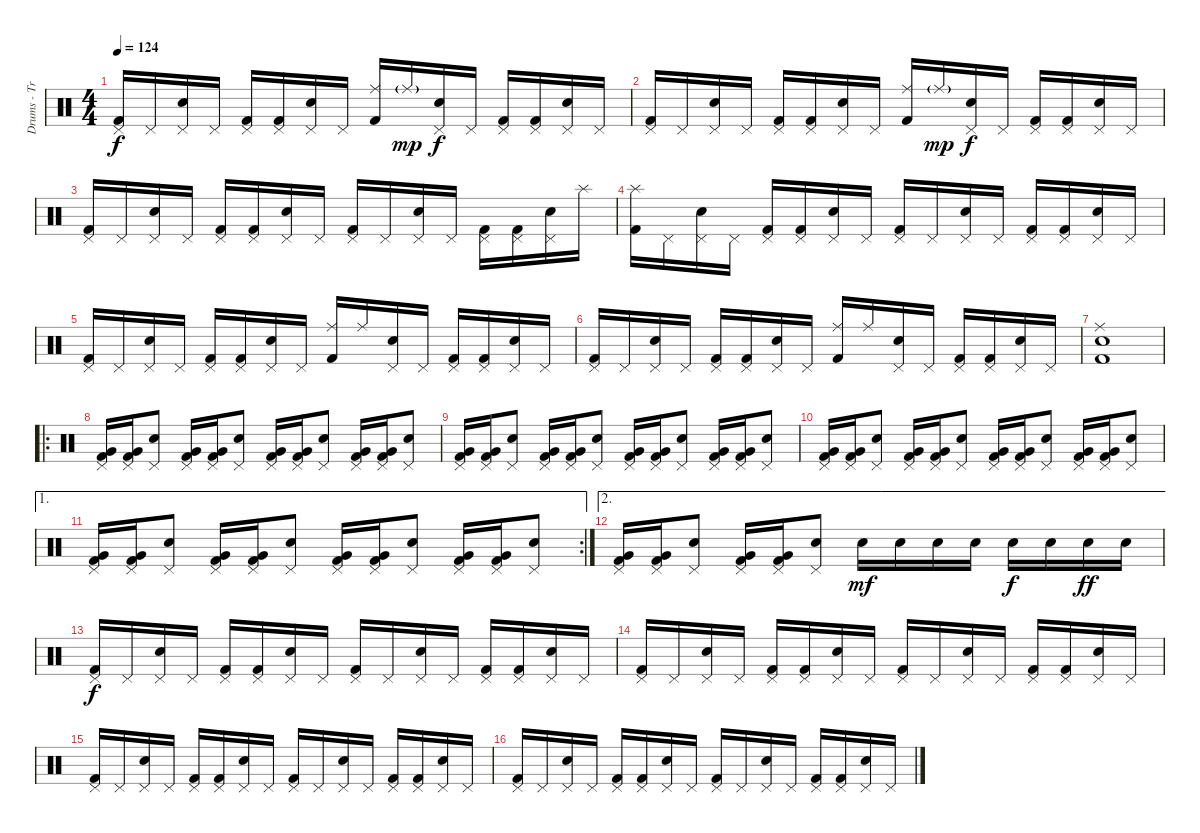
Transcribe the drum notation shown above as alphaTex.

\track ("Drums - Travis Barker" "Drums - Tr") {instrument percussion}
\staff {score}
\articulation defaults
\ts (4 4)
\tempo 124
\clef neutral
\ks c
("Pedal Hi-Hat (hit)" "Kick (hit) 2").16{dy f} "Pedal Hi-Hat (hit)".16 ("Pedal Hi-Hat (hit)" "Electric Snare (hit)").16 "Pedal Hi-Hat (hit)".16 ("Pedal Hi-Hat (hit)" "Kick (hit) 2").16 ("Pedal Hi-Hat (hit)" "Kick (hit) 2").16 ("Pedal Hi-Hat (hit)" "Electric Snare (hit)").16 "Pedal Hi-Hat (hit)".16 ("Ride (middle)" "Kick (hit) 2").16 "Ride (middle)"{g}.16{dy mp} ("Pedal Hi-Hat (hit)" "Electric Snare (hit)").16{dy f} "Pedal Hi-Hat (hit)".16 ("Pedal Hi-Hat (hit)" "Kick (hit) 2").16 ("Pedal Hi-Hat (hit)" "Kick (hit) 2").16 ("Pedal Hi-Hat (hit)" "Electric Snare (hit)").16 "Pedal Hi-Hat (hit)".16 |
("Pedal Hi-Hat (hit)" "Kick (hit) 2").16 "Pedal Hi-Hat (hit)".16 ("Pedal Hi-Hat (hit)" "Electric Snare (hit)").16 "Pedal Hi-Hat (hit)".16 ("Pedal Hi-Hat (hit)" "Kick (hit) 2").16 ("Pedal Hi-Hat (hit)" "Kick (hit) 2").16 ("Pedal Hi-Hat (hit)" "Electric Snare (hit)").16 "Pedal Hi-Hat (hit)".16 ("Ride (middle)" "Kick (hit) 2").16 "Ride (middle)"{g}.16{dy mp} ("Pedal Hi-Hat (hit)" "Electric Snare (hit)").16{dy f} "Pedal Hi-Hat (hit)".16 ("Pedal Hi-Hat (hit)" "Kick (hit) 2").16 ("Pedal Hi-Hat (hit)" "Kick (hit) 2").16 ("Pedal Hi-Hat (hit)" "Electric Snare (hit)").16 "Pedal Hi-Hat (hit)".16 |
("Pedal Hi-Hat (hit)" "Kick (hit) 2").16 "Pedal Hi-Hat (hit)".16 ("Pedal Hi-Hat (hit)" "Electric Snare (hit)").16 "Pedal Hi-Hat (hit)".16 ("Pedal Hi-Hat (hit)" "Kick (hit) 2").16 ("Pedal Hi-Hat (hit)" "Kick (hit) 2").16 ("Pedal Hi-Hat (hit)" "Electric Snare (hit)").16 "Pedal Hi-Hat (hit)".16 ("Pedal Hi-Hat (hit)" "Kick (hit) 2").16 "Pedal Hi-Hat (hit)".16 ("Pedal Hi-Hat (hit)" "Electric Snare (hit)").16 "Pedal Hi-Hat (hit)".16 ("Pedal Hi-Hat (hit)" "Kick (hit) 2").16 ("Pedal Hi-Hat (hit)" "Kick (hit) 2").16 ("Pedal Hi-Hat (hit)" "Electric Snare (hit)").16 "Splash (hit)".16 |
("Splash (hit)" "Kick (hit) 2").16 "Pedal Hi-Hat (hit)".16 ("Pedal Hi-Hat (hit)" "Electric Snare (hit)").16 "Pedal Hi-Hat (hit)".16 ("Pedal Hi-Hat (hit)" "Kick (hit) 2").16 ("Pedal Hi-Hat (hit)" "Kick (hit) 2").16 ("Pedal Hi-Hat (hit)" "Electric Snare (hit)").16 "Pedal Hi-Hat (hit)".16 ("Pedal Hi-Hat (hit)" "Kick (hit) 2").16 "Pedal Hi-Hat (hit)".16 ("Pedal Hi-Hat (hit)" "Electric Snare (hit)").16 "Pedal Hi-Hat (hit)".16 ("Pedal Hi-Hat (hit)" "Kick (hit) 2").16 ("Pedal Hi-Hat (hit)" "Kick (hit) 2").16 ("Pedal Hi-Hat (hit)" "Electric Snare (hit)").16 "Pedal Hi-Hat (hit)".16 |
("Pedal Hi-Hat (hit)" "Kick (hit) 2").16 "Pedal Hi-Hat (hit)".16 ("Pedal Hi-Hat (hit)" "Electric Snare (hit)").16 "Pedal Hi-Hat (hit)".16 ("Pedal Hi-Hat (hit)" "Kick (hit) 2").16 ("Pedal Hi-Hat (hit)" "Kick (hit) 2").16 ("Pedal Hi-Hat (hit)" "Electric Snare (hit)").16 "Pedal Hi-Hat (hit)".16 ("Ride (middle)" "Kick (hit) 2").16 "Ride (middle)".16 ("Pedal Hi-Hat (hit)" "Electric Snare (hit)").16 "Pedal Hi-Hat (hit)".16 ("Pedal Hi-Hat (hit)" "Kick (hit) 2").16 ("Pedal Hi-Hat (hit)" "Kick (hit) 2").16 ("Pedal Hi-Hat (hit)" "Electric Snare (hit)").16 "Pedal Hi-Hat (hit)".16 |
("Pedal Hi-Hat (hit)" "Kick (hit) 2").16 "Pedal Hi-Hat (hit)".16 ("Pedal Hi-Hat (hit)" "Electric Snare (hit)").16 "Pedal Hi-Hat (hit)".16 ("Pedal Hi-Hat (hit)" "Kick (hit) 2").16 ("Pedal Hi-Hat (hit)" "Kick (hit) 2").16 ("Pedal Hi-Hat (hit)" "Electric Snare (hit)").16 "Pedal Hi-Hat (hit)".16 ("Ride (middle)" "Kick (hit) 2").16 "Ride (middle)".16 ("Pedal Hi-Hat (hit)" "Electric Snare (hit)").16 "Pedal Hi-Hat (hit)".16 ("Pedal Hi-Hat (hit)" "Kick (hit) 2").16 ("Pedal Hi-Hat (hit)" "Kick (hit) 2").16 ("Pedal Hi-Hat (hit)" "Electric Snare (hit)").16 "Pedal Hi-Hat (hit)".16 |
("Ride (middle)" "Electric Snare (hit)" "Kick (hit) 2").1 |
\ro
("Pedal Hi-Hat (hit)" "Very Low Tom (hit)" "Kick (hit) 2").16 ("Pedal Hi-Hat (hit)" "Very Low Tom (hit)" "Kick (hit) 2").16 ("Pedal Hi-Hat (hit)" "Electric Snare (hit)").8 ("Pedal Hi-Hat (hit)" "Very Low Tom (hit)" "Kick (hit) 2").16 ("Pedal Hi-Hat (hit)" "Very Low Tom (hit)" "Kick (hit) 2").16 ("Pedal Hi-Hat (hit)" "Electric Snare (hit)").8 ("Pedal Hi-Hat (hit)" "Very Low Tom (hit)" "Kick (hit) 2").16 ("Pedal Hi-Hat (hit)" "Very Low Tom (hit)" "Kick (hit) 2").16 ("Pedal Hi-Hat (hit)" "Electric Snare (hit)").8 ("Pedal Hi-Hat (hit)" "Very Low Tom (hit)" "Kick (hit) 2").16 ("Pedal Hi-Hat (hit)" "Very Low Tom (hit)" "Kick (hit) 2").16 ("Pedal Hi-Hat (hit)" "Electric Snare (hit)").8 |
("Pedal Hi-Hat (hit)" "Very Low Tom (hit)" "Kick (hit) 2").16 ("Pedal Hi-Hat (hit)" "Very Low Tom (hit)" "Kick (hit) 2").16 ("Pedal Hi-Hat (hit)" "Electric Snare (hit)").8 ("Pedal Hi-Hat (hit)" "Very Low Tom (hit)" "Kick (hit) 2").16 ("Pedal Hi-Hat (hit)" "Very Low Tom (hit)" "Kick (hit) 2").16 ("Pedal Hi-Hat (hit)" "Electric Snare (hit)").8 ("Pedal Hi-Hat (hit)" "Very Low Tom (hit)" "Kick (hit) 2").16 ("Pedal Hi-Hat (hit)" "Very Low Tom (hit)" "Kick (hit) 2").16 ("Pedal Hi-Hat (hit)" "Electric Snare (hit)").8 ("Pedal Hi-Hat (hit)" "Very Low Tom (hit)" "Kick (hit) 2").16 ("Pedal Hi-Hat (hit)" "Very Low Tom (hit)" "Kick (hit) 2").16 ("Pedal Hi-Hat (hit)" "Electric Snare (hit)").8 |
("Pedal Hi-Hat (hit)" "Very Low Tom (hit)" "Kick (hit) 2").16 ("Pedal Hi-Hat (hit)" "Very Low Tom (hit)" "Kick (hit) 2").16 ("Pedal Hi-Hat (hit)" "Electric Snare (hit)").8 ("Pedal Hi-Hat (hit)" "Very Low Tom (hit)" "Kick (hit) 2").16 ("Pedal Hi-Hat (hit)" "Very Low Tom (hit)" "Kick (hit) 2").16 ("Pedal Hi-Hat (hit)" "Electric Snare (hit)").8 ("Pedal Hi-Hat (hit)" "Very Low Tom (hit)" "Kick (hit) 2").16 ("Pedal Hi-Hat (hit)" "Very Low Tom (hit)" "Kick (hit) 2").16 ("Pedal Hi-Hat (hit)" "Electric Snare (hit)").8 ("Pedal Hi-Hat (hit)" "Very Low Tom (hit)" "Kick (hit) 2").16 ("Pedal Hi-Hat (hit)" "Very Low Tom (hit)" "Kick (hit) 2").16 ("Pedal Hi-Hat (hit)" "Electric Snare (hit)").8 |
\ae 1
\rc 2
("Pedal Hi-Hat (hit)" "Very Low Tom (hit)" "Kick (hit) 2").16 ("Pedal Hi-Hat (hit)" "Very Low Tom (hit)" "Kick (hit) 2").16 ("Pedal Hi-Hat (hit)" "Electric Snare (hit)").8 ("Pedal Hi-Hat (hit)" "Very Low Tom (hit)" "Kick (hit) 2").16 ("Pedal Hi-Hat (hit)" "Very Low Tom (hit)" "Kick (hit) 2").16 ("Pedal Hi-Hat (hit)" "Electric Snare (hit)").8 ("Pedal Hi-Hat (hit)" "Very Low Tom (hit)" "Kick (hit) 2").16 ("Pedal Hi-Hat (hit)" "Very Low Tom (hit)" "Kick (hit) 2").16 ("Pedal Hi-Hat (hit)" "Electric Snare (hit)").8 ("Pedal Hi-Hat (hit)" "Very Low Tom (hit)" "Kick (hit) 2").16 ("Pedal Hi-Hat (hit)" "Very Low Tom (hit)" "Kick (hit) 2").16 ("Pedal Hi-Hat (hit)" "Electric Snare (hit)").8 |
\ae 2
("Pedal Hi-Hat (hit)" "Very Low Tom (hit)" "Kick (hit) 2").16 ("Pedal Hi-Hat (hit)" "Very Low Tom (hit)" "Kick (hit) 2").16 ("Pedal Hi-Hat (hit)" "Electric Snare (hit)").8 ("Pedal Hi-Hat (hit)" "Very Low Tom (hit)" "Kick (hit) 2").16 ("Pedal Hi-Hat (hit)" "Very Low Tom (hit)" "Kick (hit) 2").16 ("Pedal Hi-Hat (hit)" "Electric Snare (hit)").8 "Electric Snare (hit)".16{dy mf} "Electric Snare (hit)".16 "Electric Snare (hit)".16 "Electric Snare (hit)".16 "Electric Snare (hit)".16{dy f} "Electric Snare (hit)".16 "Electric Snare (hit)".16{dy ff} "Electric Snare (hit)".16 |
("Pedal Hi-Hat (hit)" "Kick (hit) 2").16{dy f} "Pedal Hi-Hat (hit)".16 ("Pedal Hi-Hat (hit)" "Electric Snare (hit)").16 "Pedal Hi-Hat (hit)".16 ("Pedal Hi-Hat (hit)" "Kick (hit) 2").16 ("Pedal Hi-Hat (hit)" "Kick (hit) 2").16 ("Pedal Hi-Hat (hit)" "Electric Snare (hit)").16 "Pedal Hi-Hat (hit)".16 ("Pedal Hi-Hat (hit)" "Kick (hit) 2").16 "Pedal Hi-Hat (hit)".16 ("Pedal Hi-Hat (hit)" "Electric Snare (hit)").16 "Pedal Hi-Hat (hit)".16 ("Pedal Hi-Hat (hit)" "Kick (hit) 2").16 ("Pedal Hi-Hat (hit)" "Kick (hit) 2").16 ("Pedal Hi-Hat (hit)" "Electric Snare (hit)").16 "Pedal Hi-Hat (hit)".16 |
("Pedal Hi-Hat (hit)" "Kick (hit) 2").16 "Pedal Hi-Hat (hit)".16 ("Pedal Hi-Hat (hit)" "Electric Snare (hit)").16 "Pedal Hi-Hat (hit)".16 ("Pedal Hi-Hat (hit)" "Kick (hit) 2").16 ("Pedal Hi-Hat (hit)" "Kick (hit) 2").16 ("Pedal Hi-Hat (hit)" "Electric Snare (hit)").16 "Pedal Hi-Hat (hit)".16 ("Pedal Hi-Hat (hit)" "Kick (hit) 2").16 "Pedal Hi-Hat (hit)".16 ("Pedal Hi-Hat (hit)" "Electric Snare (hit)").16 "Pedal Hi-Hat (hit)".16 ("Pedal Hi-Hat (hit)" "Kick (hit) 2").16 ("Pedal Hi-Hat (hit)" "Kick (hit) 2").16 ("Pedal Hi-Hat (hit)" "Electric Snare (hit)").16 "Pedal Hi-Hat (hit)".16 |
("Pedal Hi-Hat (hit)" "Kick (hit) 2").16 "Pedal Hi-Hat (hit)".16 ("Pedal Hi-Hat (hit)" "Electric Snare (hit)").16 "Pedal Hi-Hat (hit)".16 ("Pedal Hi-Hat (hit)" "Kick (hit) 2").16 ("Pedal Hi-Hat (hit)" "Kick (hit) 2").16 ("Pedal Hi-Hat (hit)" "Electric Snare (hit)").16 "Pedal Hi-Hat (hit)".16 ("Pedal Hi-Hat (hit)" "Kick (hit) 2").16 "Pedal Hi-Hat (hit)".16 ("Pedal Hi-Hat (hit)" "Electric Snare (hit)").16 "Pedal Hi-Hat (hit)".16 ("Pedal Hi-Hat (hit)" "Kick (hit) 2").16 ("Pedal Hi-Hat (hit)" "Kick (hit) 2").16 ("Pedal Hi-Hat (hit)" "Electric Snare (hit)").16 "Pedal Hi-Hat (hit)".16 |
("Pedal Hi-Hat (hit)" "Kick (hit) 2").16 "Pedal Hi-Hat (hit)".16 ("Pedal Hi-Hat (hit)" "Electric Snare (hit)").16 "Pedal Hi-Hat (hit)".16 ("Pedal Hi-Hat (hit)" "Kick (hit) 2").16 ("Pedal Hi-Hat (hit)" "Kick (hit) 2").16 ("Pedal Hi-Hat (hit)" "Electric Snare (hit)").16 "Pedal Hi-Hat (hit)".16 ("Pedal Hi-Hat (hit)" "Kick (hit) 2").16 "Pedal Hi-Hat (hit)".16 ("Pedal Hi-Hat (hit)" "Electric Snare (hit)").16 "Pedal Hi-Hat (hit)".16 ("Pedal Hi-Hat (hit)" "Kick (hit) 2").16 ("Pedal Hi-Hat (hit)" "Kick (hit) 2").16 ("Pedal Hi-Hat (hit)" "Electric Snare (hit)").16 "Pedal Hi-Hat (hit)".16
